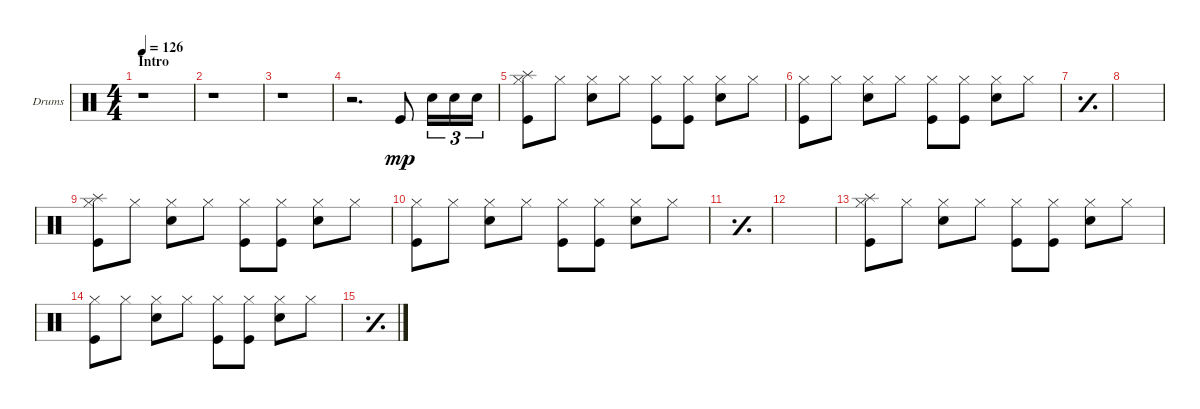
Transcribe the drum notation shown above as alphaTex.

\defaultSystemsLayout 4
\bracketExtendMode groupsimilarinstruments
\firstSystemTrackNameOrientation horizontal
\otherSystemsTrackNameOrientation horizontal
\track ("Drumkit" "Drums") {instrument percussion}
\staff {score}
\articulation defaults
\ts (4 4)
\section ("" "Intro")
\tempo 126
\clef neutral
\scale
0.472222
\ks c
r.1{dy mp} |
\scale
0.263889 r.1 |
\scale
0.263889 r.1 |
\scale
0.333333 r.2{d} "Kick (hit)".8 "Snare (hit) 2".16{tu (3 2)} "Snare (hit) 2".16{tu (3 2)} "Snare (hit) 2".16{tu (3 2)} |
\scale
0.333333 ("Hi-Hat (closed)" "Kick (hit)" "Splash (hit)").8 "Hi-Hat (closed)".8 ("Hi-Hat (closed)" "Snare (hit) 2").8 "Hi-Hat (closed)".8 ("Hi-Hat (closed)" "Kick (hit)").8 ("Hi-Hat (closed)" "Kick (hit)").8 ("Hi-Hat (closed)" "Snare (hit) 2").8 "Hi-Hat (closed)".8 |
\scale
0.333333 ("Hi-Hat (closed)" "Kick (hit)").8 "Hi-Hat (closed)".8 ("Hi-Hat (closed)" "Snare (hit) 2").8 "Hi-Hat (closed)".8 ("Hi-Hat (closed)" "Kick (hit)").8 ("Hi-Hat (closed)" "Kick (hit)").8 ("Hi-Hat (closed)" "Snare (hit) 2").8 "Hi-Hat (closed)".8 |
\simile simple
\scale
0.333333 |
\scale
0.333333 |
\simile none
\scale
0.333333 ("Hi-Hat (closed)" "Kick (hit)" "Splash (hit)").8 "Hi-Hat (closed)".8 ("Hi-Hat (closed)" "Snare (hit) 2").8 "Hi-Hat (closed)".8 ("Hi-Hat (closed)" "Kick (hit)").8 ("Hi-Hat (closed)" "Kick (hit)").8 ("Hi-Hat (closed)" "Snare (hit) 2").8 "Hi-Hat (closed)".8 |
\scale
0.333333 ("Hi-Hat (closed)" "Kick (hit)").8 "Hi-Hat (closed)".8 ("Hi-Hat (closed)" "Snare (hit) 2").8 "Hi-Hat (closed)".8 ("Hi-Hat (closed)" "Kick (hit)").8 ("Hi-Hat (closed)" "Kick (hit)").8 ("Hi-Hat (closed)" "Snare (hit) 2").8 "Hi-Hat (closed)".8 |
\simile simple
\scale
0.333333 |
\scale
0.333333 |
\simile none
\scale
0.333333 ("Hi-Hat (closed)" "Kick (hit)" "Splash (hit)").8 "Hi-Hat (closed)".8 ("Hi-Hat (closed)" "Snare (hit) 2").8 "Hi-Hat (closed)".8 ("Hi-Hat (closed)" "Kick (hit)").8 ("Hi-Hat (closed)" "Kick (hit)").8 ("Hi-Hat (closed)" "Snare (hit) 2").8 "Hi-Hat (closed)".8 |
\scale
0.333333 ("Hi-Hat (closed)" "Kick (hit)").8 "Hi-Hat (closed)".8 ("Hi-Hat (closed)" "Snare (hit) 2").8 "Hi-Hat (closed)".8 ("Hi-Hat (closed)" "Kick (hit)").8 ("Hi-Hat (closed)" "Kick (hit)").8 ("Hi-Hat (closed)" "Snare (hit) 2").8 "Hi-Hat (closed)".8 |
\simile simple
\scale
0.333333 |
\scale
0.333333
